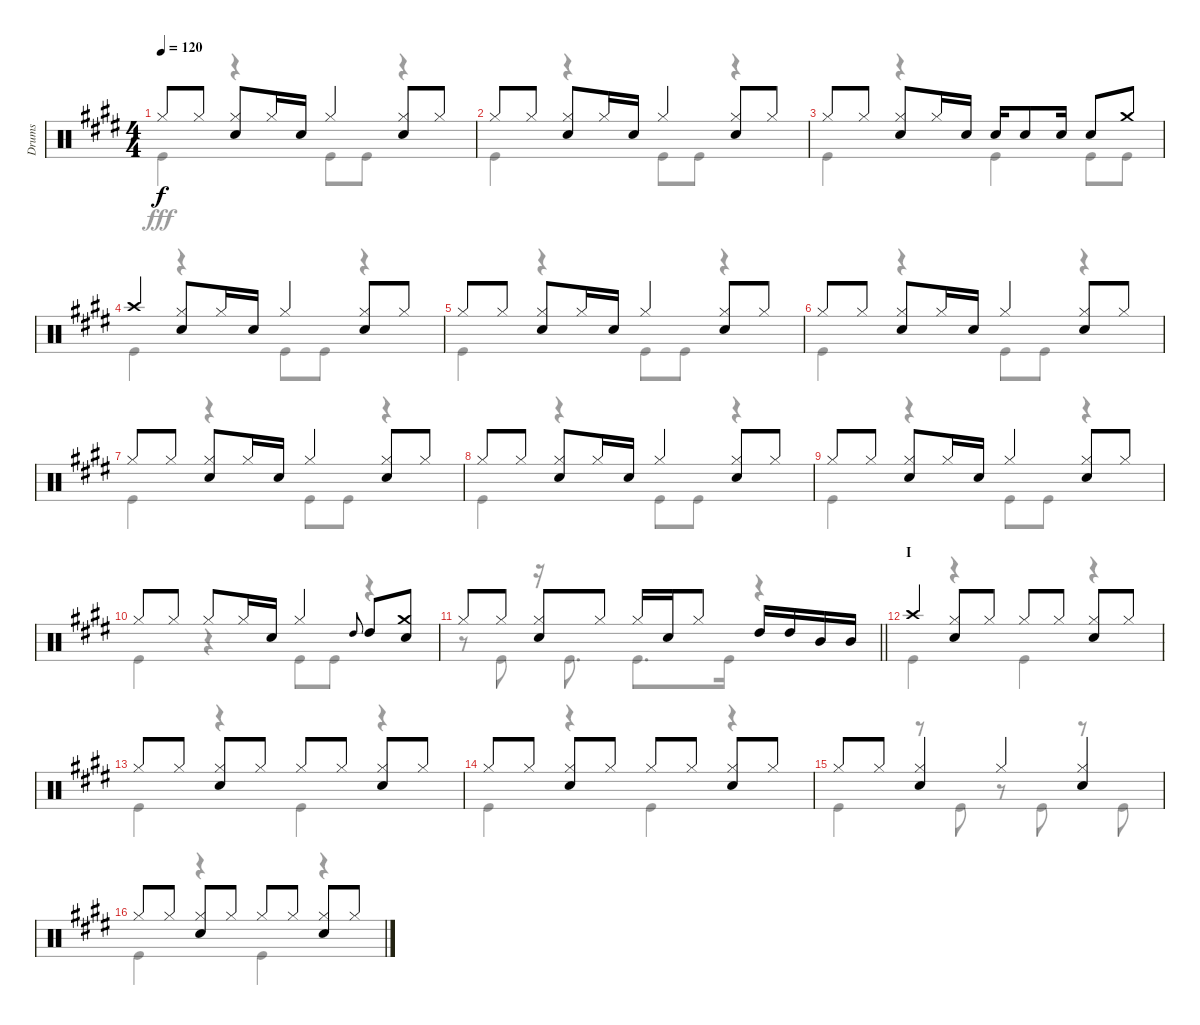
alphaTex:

\track ("Drums" "Drums") {instrument percussion}
\staff {score}
\articulation defaults
\voice
\ts (4 4)
\tempo 120
\clef neutral
\ks e "Hi-Hat (closed)".8{dy f} "Hi-Hat (closed)".8
("Hi-Hat (closed)" "Snare (hit) 2").8 "Hi-Hat (closed)".16 "Snare (hit) 2".16 "Hi-Hat (closed)".4 ("Hi-Hat (closed)" "Snare (hit) 2").8 "Hi-Hat (closed)".8 |
"Hi-Hat (closed)".8 "Hi-Hat (closed)".8 ("Hi-Hat (closed)" "Snare (hit) 2").8 "Hi-Hat (closed)".16 "Snare (hit) 2".16 "Hi-Hat (closed)".4 ("Hi-Hat (closed)" "Snare (hit) 2").8 "Hi-Hat (closed)".8 |
"Hi-Hat (closed)".8 "Hi-Hat (closed)".8 ("Hi-Hat (closed)" "Snare (hit) 2").8 "Hi-Hat (closed)".16 "Snare (hit) 2".16 "Snare (hit) 2".16 "Snare (hit) 2".8 "Snare (hit) 2".16 "Snare (hit) 2".8 "Crash medium (hit)".8 |
"Crash high (hit)".4 ("Hi-Hat (closed)" "Snare (hit) 2").8 "Hi-Hat (closed)".16 "Snare (hit) 2".16 "Hi-Hat (closed)".4 ("Hi-Hat (closed)" "Snare (hit) 2").8 "Hi-Hat (closed)".8 |
"Hi-Hat (closed)".8 "Hi-Hat (closed)".8 ("Hi-Hat (closed)" "Snare (hit) 2").8 "Hi-Hat (closed)".16 "Snare (hit) 2".16 "Hi-Hat (closed)".4 ("Hi-Hat (closed)" "Snare (hit) 2").8 "Hi-Hat (closed)".8 |
"Hi-Hat (closed)".8 "Hi-Hat (closed)".8 ("Hi-Hat (closed)" "Snare (hit) 2").8 "Hi-Hat (closed)".16 "Snare (hit) 2".16 "Hi-Hat (closed)".4 ("Hi-Hat (closed)" "Snare (hit) 2").8 "Hi-Hat (closed)".8 |
"Hi-Hat (closed)".8 "Hi-Hat (closed)".8 ("Hi-Hat (closed)" "Snare (hit) 2").8 "Hi-Hat (closed)".16 "Snare (hit) 2".16 "Hi-Hat (closed)".4 ("Hi-Hat (closed)" "Snare (hit) 2").8 "Hi-Hat (closed)".8 |
"Hi-Hat (closed)".8 "Hi-Hat (closed)".8 ("Hi-Hat (closed)" "Snare (hit) 2").8 "Hi-Hat (closed)".16 "Snare (hit) 2".16 "Hi-Hat (closed)".4 ("Hi-Hat (closed)" "Snare (hit) 2").8 "Hi-Hat (closed)".8 |
"Hi-Hat (closed)".8 "Hi-Hat (closed)".8 ("Hi-Hat (closed)" "Snare (hit) 2").8 "Hi-Hat (closed)".16 "Snare (hit) 2".16 "Hi-Hat (closed)".4 ("Hi-Hat (closed)" "Snare (hit) 2").8 "Hi-Hat (closed)".8 |
"Hi-Hat (closed)".8 "Hi-Hat (closed)".8 "Hi-Hat (closed)".8 "Hi-Hat (closed)".16 "Snare (hit) 2".16 "Hi-Hat (closed)".4 "High Tom (hit)".8{gr onbeat} "High Tom (hit)".8 ("Crash medium (hit)" "Snare (hit) 2").8 |
\barLineRight lightlight "Hi-Hat (closed)".8 "Hi-Hat (closed)".8
("Hi-Hat (closed)" "Snare (hit) 2").8 "Hi-Hat (closed)".8 "Hi-Hat (closed)".16 "Snare (hit) 2".16 "Hi-Hat (closed)".8 "High Tom (hit)".16 "High Tom (hit)".16 "Mid Tom (hit)".16 "Mid Tom (hit)".16 |
\section ("" "I")
"Crash high (hit)".4 ("Hi-Hat (closed)" "Snare (hit) 2").8 "Hi-Hat (closed)".8 "Hi-Hat (closed)".8 "Hi-Hat (closed)".8 ("Hi-Hat (closed)" "Snare (hit) 2").8 "Hi-Hat (closed)".8 |
"Hi-Hat (closed)".8 "Hi-Hat (closed)".8 ("Hi-Hat (closed)" "Snare (hit) 2").8 "Hi-Hat (closed)".8 "Hi-Hat (closed)".8 "Hi-Hat (closed)".8 ("Hi-Hat (closed)" "Snare (hit) 2").8 "Hi-Hat (closed)".8 |
"Hi-Hat (closed)".8 "Hi-Hat (closed)".8 ("Hi-Hat (closed)" "Snare (hit) 2").8 "Hi-Hat (closed)".8 "Hi-Hat (closed)".8 "Hi-Hat (closed)".8 ("Hi-Hat (closed)" "Snare (hit) 2").8 "Hi-Hat (closed)".8 |
"Hi-Hat (closed)".8 "Hi-Hat (closed)".8 ("Hi-Hat (closed)" "Snare (hit) 2").4 "Hi-Hat (closed)".4 ("Hi-Hat (closed)" "Snare (hit) 2").4 |
"Hi-Hat (closed)".8 "Hi-Hat (closed)".8 ("Hi-Hat (closed)" "Snare (hit) 2").8 "Hi-Hat (closed)".8 "Hi-Hat (closed)".8 "Hi-Hat (closed)".8 ("Hi-Hat (closed)" "Snare (hit) 2").8 "Hi-Hat (closed)".8
\voice
\clef neutral
\ottava regular
\simile none
\ks e "Kick (hit)".4{dy fff}
r.4 "Kick (hit)".8 "Kick (hit)".8 r.4 |
"Kick (hit)".4 r.4 "Kick (hit)".8 "Kick (hit)".8 r.4 |
"Kick (hit)".4 r.4 "Kick (hit)".4 "Kick (hit)".8 "Kick (hit)".8 |
"Kick (hit)".4 r.4 "Kick (hit)".8 "Kick (hit)".8 r.4 |
"Kick (hit)".4 r.4 "Kick (hit)".8 "Kick (hit)".8 r.4 |
"Kick (hit)".4 r.4 "Kick (hit)".8 "Kick (hit)".8 r.4 |
"Kick (hit)".4 r.4 "Kick (hit)".8 "Kick (hit)".8 r.4 |
"Kick (hit)".4 r.4 "Kick (hit)".8 "Kick (hit)".8 r.4 |
"Kick (hit)".4 r.4 "Kick (hit)".8 "Kick (hit)".8 r.4 |
"Kick (hit)".4 r.4 "Kick (hit)".8 "Kick (hit)".8 r.4 |
\barLineRight lightlight
r.8 "Kick (hit)".8 r.16 "Kick (hit)".8{d} "Kick (hit)".8{d} "Kick (hit)".16 r.4 |
"Kick (hit)".4 r.4 "Kick (hit)".4 r.4 |
"Kick (hit)".4 r.4 "Kick (hit)".4 r.4 |
"Kick (hit)".4 r.4 "Kick (hit)".4 r.4 |
"Kick (hit)".4 r.8 "Kick (hit)".8 r.8 "Kick (hit)".8 r.8 "Kick (hit)".8 |
"Kick (hit)".4 r.4 "Kick (hit)".4 r.4
